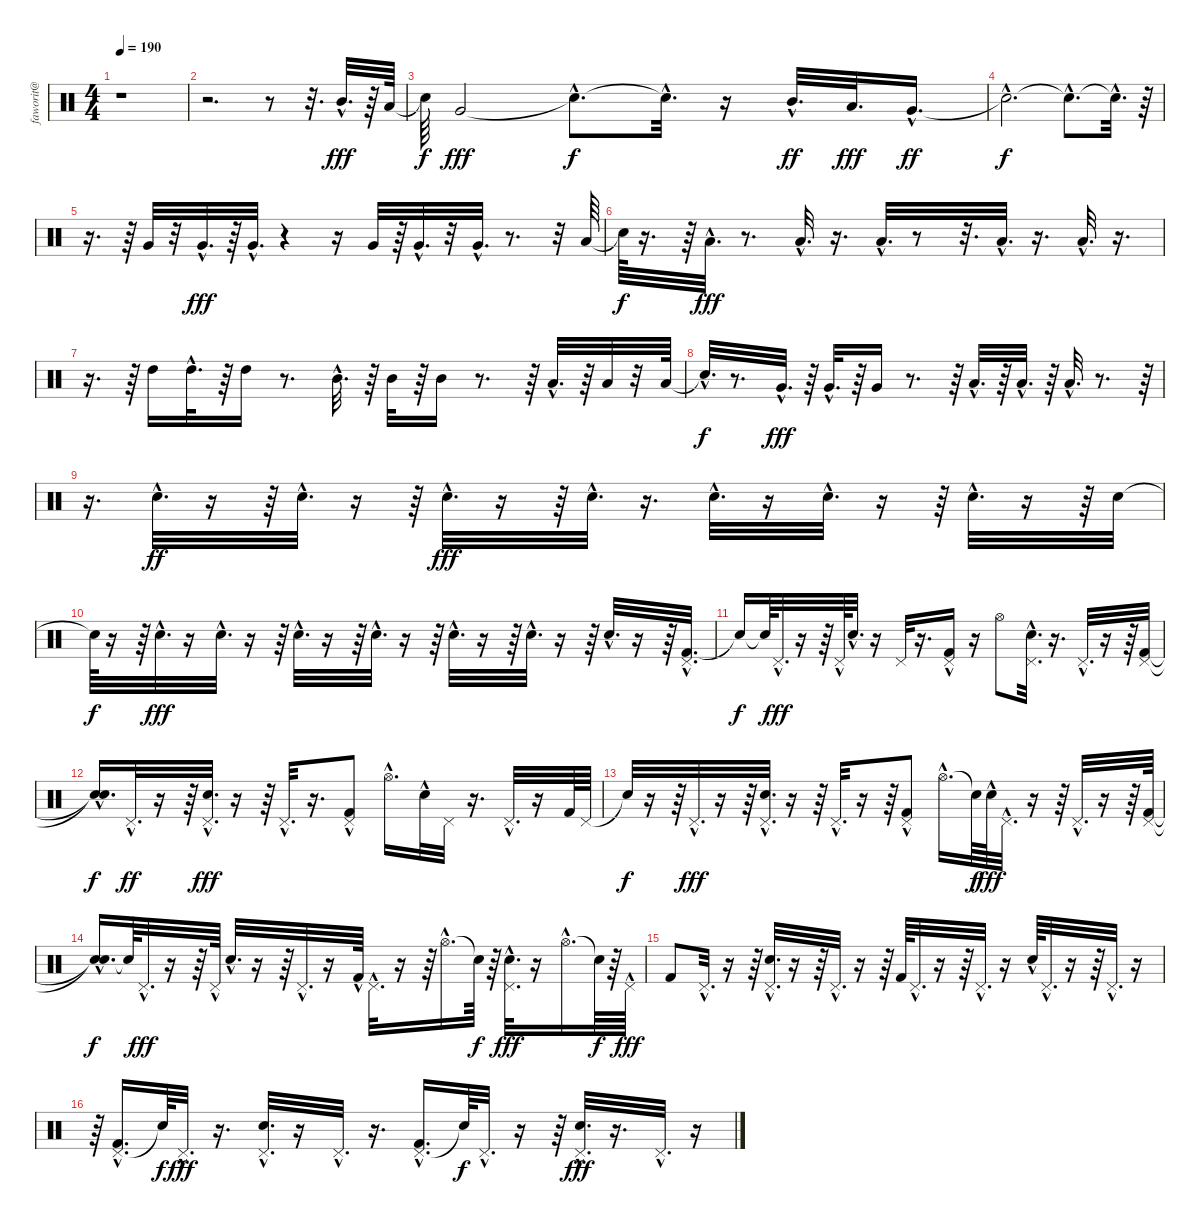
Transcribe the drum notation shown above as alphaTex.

\track ("faworit@" "faworit@") {instrument percussion}
\staff {score}
\articulation defaults
\ts (4 4)
\tempo 190
\clef neutral
\ks c
r.1{dy fff} |
r.2{d} r.8 r.32{d} "Mid Tom (hit)"{hac}.32{d} r.64 "Low Tom (hit)".64 |
"Snare (hit)"{t}.64{dy f} "Very Low Tom (hit)".2{dy fff} "Snare (hit)"{hac t}.8{d dy f} "Snare (hit)"{hac t}.32{d} r.16 "Mid Tom (hit)"{hac}.32{d dy ff} "Low Tom (hit)".32{d dy fff} "Very Low Tom (hit)"{hac}.16{d dy ff} |
"Snare (hit)"{hac t}.2{d dy f} "Snare (hit)"{hac t}.8{d} "Snare (hit)"{hac t}.32{d} r.64 |
r.16{d} r.64 "Very Low Tom (hit)".32 r.32 "Very Low Tom (hit)"{hac}.32{d dy fff} r.64 "Very Low Tom (hit)"{hac}.32{d} r.4 r.16 "Very Low Tom (hit)".32 r.64 "Very Low Tom (hit)"{hac}.32{d} r.32 "Very Low Tom (hit)"{hac}.32{d} r.8{d} r.32 "Low Floor Tom (hit)".64 |
"Snare (hit)"{t}.64{dy f} r.16{d} r.64 "Low Floor Tom (hit)"{hac}.32{d dy fff} r.8{d} "Low Floor Tom (hit)"{hac}.32{d} r.16{d} "Low Floor Tom (hit)"{hac}.32{d} r.8 r.32{d} "Low Floor Tom (hit)"{hac}.32{d} r.16{d} "Low Floor Tom (hit)"{hac}.32{d} r.16{d} |
r.16{d} r.64 "High Tom (hit)".16 "High Tom (hit)"{hac}.32{d} r.64 "High Tom (hit)".16 r.8{d} "Mid Tom (hit)"{hac}.32{d} r.64 "Mid Tom (hit)".32 r.64 "Mid Tom (hit)".16 r.8{d} r.64 "Low Tom (hit)"{hac}.32{d} r.64 "Low Tom (hit)".32 r.32 "Low Tom (hit)".64 |
"Snare (hit)"{hac t}.32{d dy f} r.8{d} "Very Low Tom (hit)"{hac}.32{d dy fff} r.64 "Very Low Tom (hit)"{hac}.32{d} r.64 "Very Low Tom (hit)".16 r.8{d} r.64 "Low Floor Tom (hit)"{hac}.32{d} r.64 "Low Floor Tom (hit)"{hac}.32{d} r.64 "Low Floor Tom (hit)"{hac}.32{d} r.8{d} r.64 |
r.16{d} "Snare (hit) 2"{hac}.32{d dy ff} r.16 r.64 "Snare (hit) 2"{hac}.32{d} r.16 r.64 "Snare (hit) 2"{hac}.32{d dy fff} r.16 r.64 "Snare (hit) 2"{hac}.32{d} r.16{d} "Snare (hit) 2"{hac}.32{d} r.16 "Snare (hit) 2"{hac}.32{d} r.16 r.64 "Snare (hit) 2"{hac}.32{d} r.16 r.64 "Snare (hit) 2".32 |
"Snare (hit)"{t}.64{dy f} r.16 r.64 "Snare (hit) 2"{hac}.32{d dy fff} r.16 "Snare (hit) 2"{hac}.32{d} r.16 r.64 "Snare (hit) 2"{hac}.32{d} r.16 r.64 "Snare (hit) 2"{hac}.32{d} r.16 r.64 "Snare (hit) 2"{hac}.32{d} r.16 r.64 "Snare (hit) 2"{hac}.32{d} r.16 r.64 "Snare (hit) 2"{hac}.32{d} r.16 r.64 ("Kick (hit) 2"{hac} "Pedal Hi-Hat (hit)").32{d} |
"Snare (hit)"{t}.16{dy f} "Snare (hit)"{t}.64 "Pedal Hi-Hat (hit)"{hac}.32{d dy fff} r.16 r.64 "Pedal Hi-Hat (hit)"{hac}.64 "Snare (hit) 2"{hac}.32{d} r.16 "Pedal Hi-Hat (hit)".32 r.16{d} ("Pedal Hi-Hat (hit)"{hac} "Kick (hit) 2").16 r.16 "Hi-Hat (open)".8 ("Snare (hit) 2"{hac} "Pedal Hi-Hat (hit)"{hac}).32{d} r.16{d} "Pedal Hi-Hat (hit)"{hac}.32{d} r.16 r.64 ("Pedal Hi-Hat (hit)" "Kick (hit) 2").32 |
("Snare (hit)"{t} "Snare (hit)"{hac t}).16{d dy f} "Pedal Hi-Hat (hit)"{hac}.32{d dy ff} r.16 r.64 ("Snare (hit) 2"{hac} "Pedal Hi-Hat (hit)"{hac}).32{d dy fff} r.16 r.64 "Pedal Hi-Hat (hit)"{hac}.32{d} r.16{d} ("Kick (hit) 2"{hac} "Pedal Hi-Hat (hit)"{hac}).8 "Hi-Hat (open)"{hac}.16{d} "Snare (hit) 2"{hac}.32 "Pedal Hi-Hat (hit)".32 r.16{d} "Pedal Hi-Hat (hit)"{hac}.32{d} r.16 "Kick (hit) 2".64 "Pedal Hi-Hat (hit)".64 |
"Snare (hit)"{t}.32{dy f} r.16 r.64 "Pedal Hi-Hat (hit)"{hac}.32{d dy fff} r.16 r.64 ("Snare (hit) 2"{hac} "Pedal Hi-Hat (hit)"{hac}).32{d} r.16 r.64 "Pedal Hi-Hat (hit)"{hac}.32{d} r.16 r.64 ("Pedal Hi-Hat (hit)"{hac} "Kick (hit) 2"{hac}).8 "Hi-Hat (open)"{hac}.16{d} "Snare (hit)"{t}.64{dy f} "Snare (hit) 2"{hac}.64{dy fff} "Pedal Hi-Hat (hit)"{hac}.32{d} r.16 r.64 "Pedal Hi-Hat (hit)"{hac}.32{d} r.16 r.64 ("Pedal Hi-Hat (hit)" "Kick (hit) 2").64 |
("Snare (hit)"{t} "Snare (hit)"{hac t}).16{d dy f} "Snare (hit)"{t}.64 "Pedal Hi-Hat (hit)"{hac}.32{d dy fff} r.16 r.64 "Pedal Hi-Hat (hit)"{hac}.64 "Snare (hit) 2"{hac}.32{d} r.16 r.64 "Pedal Hi-Hat (hit)"{hac}.32{d} r.16 "Kick (hit) 2"{hac}.64 "Pedal Hi-Hat (hit)"{hac}.32{d} r.16 r.64 "Hi-Hat (open)"{hac}.16{d} "Snare (hit)"{t}.64{dy f} r.64 ("Snare (hit) 2"{hac} "Pedal Hi-Hat (hit)").32{d dy fff} r.16 "Hi-Hat (open)"{hac}.16{d} "Snare (hit)"{t}.64{dy f} r.64 "Pedal Hi-Hat (hit)"{hac}.64{dy fff} |
"Kick (hit) 2".8 "Pedal Hi-Hat (hit)"{hac}.32{d} r.16 r.64 ("Pedal Hi-Hat (hit)"{hac} "Snare (hit) 2"{hac}).32{d} r.16 r.64 "Pedal Hi-Hat (hit)"{hac}.32{d} r.16 r.64 "Kick (hit) 2".64 "Pedal Hi-Hat (hit)"{hac}.32{d} r.16 r.64 "Pedal Hi-Hat (hit)"{hac}.32{d} r.16 "Snare (hit) 2"{hac}.64 "Pedal Hi-Hat (hit)"{hac}.32{d} r.16 r.64 "Pedal Hi-Hat (hit)"{hac}.32{d} r.16 |
r.64 ("Pedal Hi-Hat (hit)"{hac} "Kick (hit) 2"{hac}).16{d} "Snare (hit)"{t}.64{dy f} "Pedal Hi-Hat (hit)"{hac}.32{d dy fff} r.16{d} ("Pedal Hi-Hat (hit)"{hac} "Snare (hit) 2"{hac}).32{d} r.16 "Pedal Hi-Hat (hit)"{hac}.32{d} r.16{d} ("Pedal Hi-Hat (hit)"{hac} "Kick (hit) 2"{hac}).16{d} "Snare (hit)"{t}.64{dy f} "Pedal Hi-Hat (hit)"{hac}.32{d} r.16 r.64 ("Snare (hit) 2"{hac} "Pedal Hi-Hat (hit)"{hac}).32{d dy fff} r.16{d} "Pedal Hi-Hat (hit)"{hac}.32{d} r.16
